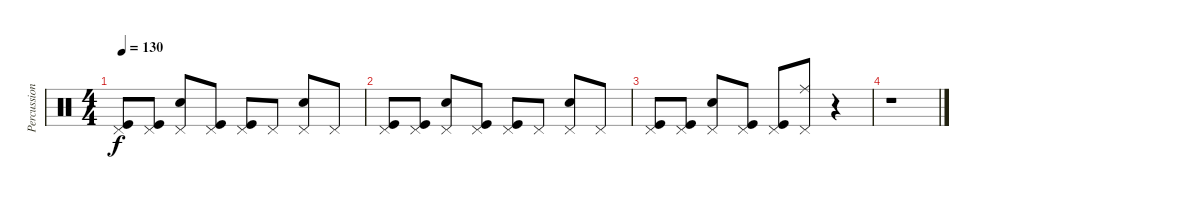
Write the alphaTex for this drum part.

\track ("Percussion" "Percussion") {instrument percussion}
\staff {score}
\articulation defaults
\ts (4 4)
\tempo 130
\clef neutral
\ks c
("Kick (hit)" "Pedal Hi-Hat (hit)").8{dy f} ("Kick (hit)" "Pedal Hi-Hat (hit)").8 ("Snare (hit) 2" "Pedal Hi-Hat (hit)").8 ("Kick (hit)" "Pedal Hi-Hat (hit)").8 ("Kick (hit)" "Pedal Hi-Hat (hit)").8 "Pedal Hi-Hat (hit)".8 ("Snare (hit) 2" "Pedal Hi-Hat (hit)").8 "Pedal Hi-Hat (hit)".8 |
("Kick (hit)" "Pedal Hi-Hat (hit)").8 ("Kick (hit)" "Pedal Hi-Hat (hit)").8 ("Snare (hit) 2" "Pedal Hi-Hat (hit)").8 ("Kick (hit)" "Pedal Hi-Hat (hit)").8 ("Kick (hit)" "Pedal Hi-Hat (hit)").8 "Pedal Hi-Hat (hit)".8 ("Snare (hit) 2" "Pedal Hi-Hat (hit)").8 "Pedal Hi-Hat (hit)".8 |
("Kick (hit)" "Pedal Hi-Hat (hit)").8 ("Kick (hit)" "Pedal Hi-Hat (hit)").8 ("Snare (hit) 2" "Pedal Hi-Hat (hit)").8 ("Kick (hit)" "Pedal Hi-Hat (hit)").8 ("Kick (hit)" "Pedal Hi-Hat (hit)").8 ("Ride (middle)" "Pedal Hi-Hat (hit)").8 r.4 |
r.1
